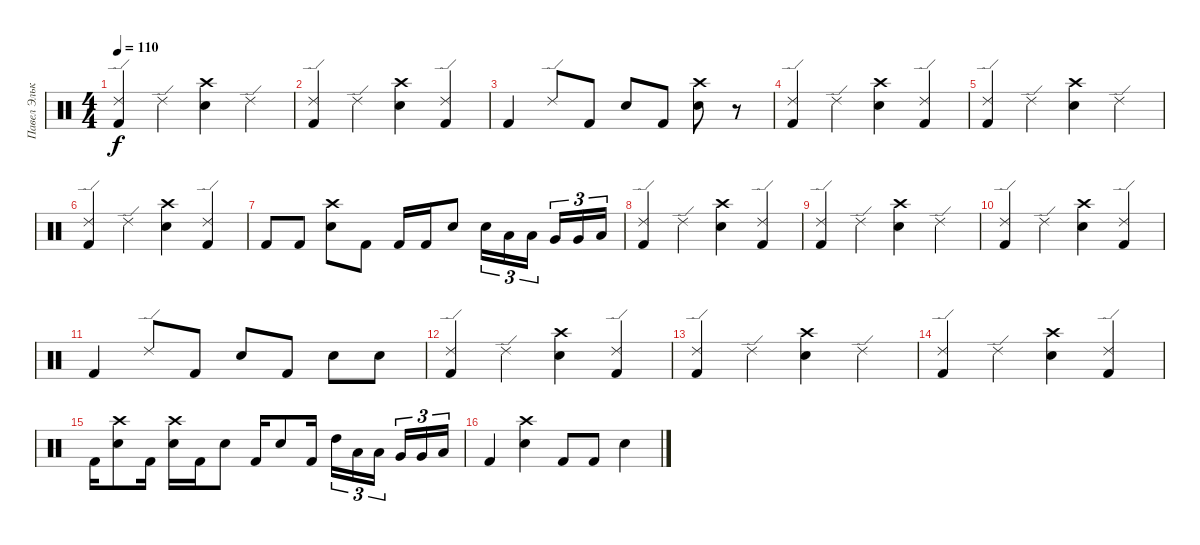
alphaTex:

\track ("Павел Элькинд" "Павел Эльк") {instrument percussion}
\staff {score}
\articulation defaults
\ts (4 4)
\tempo 110
\clef neutral
\ks c
("Kick (hit) 2" "Ride (edge) 2").4{dy f} "Ride (edge) 2".4 ("Electric Snare (hit)" "Crash high (hit)").4 "Ride (edge) 2".4 |
("Kick (hit) 2" "Ride (edge) 2").4 "Ride (edge) 2".4 ("Electric Snare (hit)" "Crash high (hit)").4 ("Kick (hit) 2" "Ride (edge) 2").4 |
"Kick (hit) 2".4 "Ride (edge) 2".8 "Kick (hit) 2".8 "Electric Snare (hit)".8 "Kick (hit) 2".8 ("Electric Snare (hit)" "Crash high (hit)").8 r.8 |
("Kick (hit) 2" "Ride (edge) 2").4 "Ride (edge) 2".4 ("Electric Snare (hit)" "Crash high (hit)").4 ("Kick (hit) 2" "Ride (edge) 2").4 |
("Kick (hit) 2" "Ride (edge) 2").4 "Ride (edge) 2".4 ("Electric Snare (hit)" "Crash high (hit)").4 "Ride (edge) 2".4 |
("Kick (hit) 2" "Ride (edge) 2").4 "Ride (edge) 2".4 ("Electric Snare (hit)" "Crash high (hit)").4 ("Kick (hit) 2" "Ride (edge) 2").4 |
"Kick (hit) 2".8 "Kick (hit) 2".8 ("Electric Snare (hit)" "Crash high (hit)").8 "Kick (hit) 2".8 "Kick (hit) 2".16 "Kick (hit) 2".16 "Electric Snare (hit)".8 "Electric Snare (hit)".16{tu (3 2)} "Low Tom (hit)".16{tu (3 2)} "Low Tom (hit)".16{tu (3 2) beam splitsecondary} "Very Low Tom (hit)".16{tu (3 2)} "Very Low Tom (hit)".16{tu (3 2)} "Low Floor Tom (hit)".16{tu (3 2)} |
("Kick (hit) 2" "Ride (edge) 2").4 "Ride (edge) 2".4 ("Electric Snare (hit)" "Crash high (hit)").4 ("Kick (hit) 2" "Ride (edge) 2").4 |
("Kick (hit) 2" "Ride (edge) 2").4 "Ride (edge) 2".4 ("Electric Snare (hit)" "Crash high (hit)").4 "Ride (edge) 2".4 |
("Kick (hit) 2" "Ride (edge) 2").4 "Ride (edge) 2".4 ("Electric Snare (hit)" "Crash high (hit)").4 ("Kick (hit) 2" "Ride (edge) 2").4 |
"Kick (hit) 2".4 "Ride (edge) 2".8 "Kick (hit) 2".8 "Electric Snare (hit)".8 "Kick (hit) 2".8 "Electric Snare (hit)".8 "Electric Snare (hit)".8 |
("Kick (hit) 2" "Ride (edge) 2").4 "Ride (edge) 2".4 ("Electric Snare (hit)" "Crash high (hit)").4 ("Kick (hit) 2" "Ride (edge) 2").4 |
("Kick (hit) 2" "Ride (edge) 2").4 "Ride (edge) 2".4 ("Electric Snare (hit)" "Crash high (hit)").4 "Ride (edge) 2".4 |
("Kick (hit) 2" "Ride (edge) 2").4 "Ride (edge) 2".4 ("Electric Snare (hit)" "Crash high (hit)").4 ("Kick (hit) 2" "Ride (edge) 2").4 |
"Kick (hit) 2".16 ("Electric Snare (hit)" "Crash high (hit)").8 "Kick (hit) 2".16 ("Electric Snare (hit)" "Crash high (hit)").16 "Kick (hit) 2".16 "Electric Snare (hit)".8 "Kick (hit) 2".16 "Electric Snare (hit)".8 "Kick (hit) 2".16 "High Tom (hit)".16{tu (3 2)} "Low Tom (hit)".16{tu (3 2)} "Low Tom (hit)".16{tu (3 2) beam splitsecondary} "Very Low Tom (hit)".16{tu (3 2)} "Very Low Tom (hit)".16{tu (3 2)} "Low Floor Tom (hit)".16{tu (3 2)} |
"Kick (hit) 2".4 ("Electric Snare (hit)" "Crash high (hit)").4 "Kick (hit) 2".8 "Kick (hit) 2".8 "Electric Snare (hit)".4
